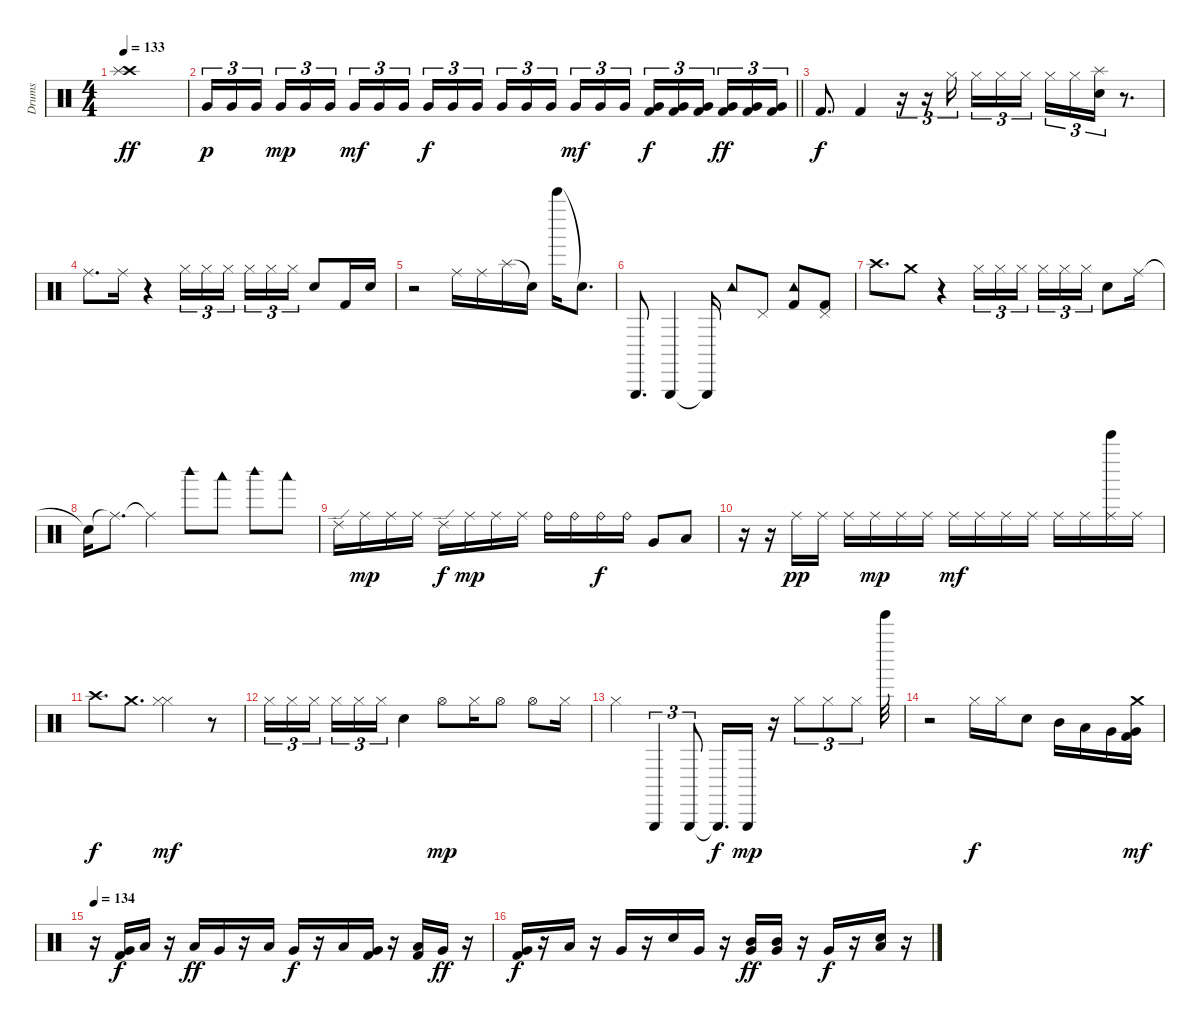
\track ("Drums" "Drums") {instrument percussion}
\staff {score}
\articulation defaults
\ts (4 4)
\tempo 133
\clef neutral
\ks c
("Crash high (hit)" "Splash (hit)").1{dy ff} |
\barLineRight lightlight "Very Low Tom (hit)".16{tu (3 2) dy p} "Very Low Tom (hit)".16{tu (3 2)} "Very Low Tom (hit)".16{tu (3 2) beam splitsecondary} "Very Low Tom (hit)".16{tu (3 2) dy mp} "Very Low Tom (hit)".16{tu (3 2)} "Very Low Tom (hit)".16{tu (3 2)} "Very Low Tom (hit)".16{tu (3 2) dy mf} "Very Low Tom (hit)".16{tu (3 2)} "Very Low Tom (hit)".16{tu (3 2) beam splitsecondary} "Very Low Tom (hit)".16{tu (3 2) dy f} "Very Low Tom (hit)".16{tu (3 2)} "Very Low Tom (hit)".16{tu (3 2)} "Very Low Tom (hit)".16{tu (3 2)} "Very Low Tom (hit)".16{tu (3 2)} "Very Low Tom (hit)".16{tu (3 2) beam splitsecondary} "Very Low Tom (hit)".16{tu (3 2) dy mf} "Very Low Tom (hit)".16{tu (3 2)} "Very Low Tom (hit)".16{tu (3 2)}
("Very Low Tom (hit)" "Kick (hit) 2").16{tu (3 2) dy f} ("Very Low Tom (hit)" "Kick (hit) 2").16{tu (3 2)} ("Very Low Tom (hit)" "Kick (hit) 2").16{tu (3 2) beam splitsecondary} ("Very Low Tom (hit)" "Kick (hit) 2").16{tu (3 2) dy ff} ("Very Low Tom (hit)" "Kick (hit) 2").16{tu (3 2)} ("Very Low Tom (hit)" "Kick (hit) 2").16{tu (3 2)} |
\section ("" "")
"Kick (hit) 2".8{d dy f} "Kick (hit) 2".4 r.16{tu (3 2)} r.16{tu (3 2)} "Hi-Hat (closed)".16{tu (3 2) beam splitsecondary} "Hi-Hat (closed)".16{tu (3 2)} "Hi-Hat (closed)".16{tu (3 2)} "Hi-Hat (closed)".16{tu (3 2) beam splitsecondary} "Hi-Hat (closed)".16{tu (3 2)} "Hi-Hat (closed)".16{tu (3 2)} ("Splash (hit)" "Snare (hit) 2").16{tu (3 2)} r.8{d} |
"Ride (middle)".8{d} "Ride (middle)".16 r.4 "Hi-Hat (closed)".16{tu (3 2)} "Hi-Hat (closed)".16{tu (3 2)} "Hi-Hat (closed)".16{tu (3 2) beam splitsecondary} "Hi-Hat (closed)".16{tu (3 2)} "Hi-Hat (closed)".16{tu (3 2)} "Hi-Hat (closed)".16{tu (3 2)} "Snare (hit) 2".8 "Kick (hit) 2".16 "Snare (hit) 2".16 |
r.2 "Ride (middle)".16 "Ride (middle)".16 "Splash (hit)".16 "Snare (hit)"{t}.16 "Bell Tree (hit)".16 "Snare (hit)"{t}.8{d} |
"Triangle (hit)".8{d} "Triangle (hit)".4 "Triangle (hit)"{t}.16 "Tambourine (hit)".8 "Pedal Hi-Hat (hit)".8 ("Tambourine (hit)" "Kick (hit) 2").8 ("Pedal Hi-Hat (hit)" "Kick (hit) 2").8 |
"Crash high (hit)".8{d} "Crash medium (hit)".8 r.4 "Hi-Hat (closed)".16{tu (3 2)} "Hi-Hat (closed)".16{tu (3 2)} "Hi-Hat (closed)".16{tu (3 2) beam splitsecondary} "Hi-Hat (closed)".16{tu (3 2)} "Hi-Hat (closed)".16{tu (3 2)} "Hi-Hat (closed)".16{tu (3 2)} "Snare (hit) 2".8 "Ride (middle)".16 |
"Snare (hit)"{t}.16 "Ride (middle)"{t}.8{d} "Ride (middle)"{t}.4 "Woodblock high (hit)".8 "Woodblock low (hit)".8 "Woodblock high (hit)".8 "Woodblock low (hit)".8 |
"Ride (edge) 2".16 "Ride (middle)".16{dy mp} "Ride (middle)".16 "Ride (middle)".16 "Ride (edge) 2".16{dy f} "Ride (middle)".16{dy mp} "Ride (middle)".16 "Ride (middle)".16 "Ride (bell)".16 "Ride (bell)".16 "Ride (bell)".16{dy f} "Ride (bell)".16 "Very Low Tom (hit)".8 "Low Floor Tom (hit)".8 |
r.16 r.16 "Ride (middle)".16{dy pp} "Ride (middle)".16 "Ride (middle)".16 "Ride (middle)".16{dy mp} "Ride (middle)".16 "Ride (middle)".16 "Ride (middle)".16{dy mf} "Ride (middle)".16 "Ride (middle)".16 "Ride (middle)".16 "Ride (middle)".16 "Ride (middle)".16 ("Bell Tree (hit)" "Ride (middle)").16 "Ride (middle)".16 |
"Crash high (hit)".8{d dy f} "Crash medium (hit)".8{d} ("Hi-Hat (closed)" "Hi-Hat (closed)").2{dy mf} r.8 |
"Hi-Hat (closed)".16{tu (3 2)} "Hi-Hat (closed)".16{tu (3 2)} "Hi-Hat (closed)".16{tu (3 2) beam splitsecondary} "Hi-Hat (closed)".16{tu (3 2)} "Hi-Hat (closed)".16{tu (3 2)} "Hi-Hat (closed)".16{tu (3 2)} "Snare (hit) 2".4 "Hi-Hat (open)".8{dy mp} "Hi-Hat (closed)".16 "Hi-Hat (open)".8 "Hi-Hat (open)".8 "Hi-Hat (closed)".16 |
"Hi-Hat (closed)".4 "Triangle (hit)".4{tu (3 2)} "Triangle (hit)".8{tu (3 2)} "Triangle (hit)"{t}.16{d dy f} "Triangle (hit)".16{dy mp} r.16 "Hi-Hat (closed)".8{tu (3 2)} "Hi-Hat (closed)".8{tu (3 2)} "Hi-Hat (closed)".8{tu (3 2)} "Tinkle Bell (hit)".32 |
r.2 "Hi-Hat (closed)".16{dy f} "Hi-Hat (closed)".16 "Snare (hit) 2".8 "Mid Tom (hit)".16 "Low Tom (hit)".16 "Very Low Tom (hit)".16 ("Crash medium (hit)" "Very Low Tom (hit)" "Kick (hit) 2").16{dy mf} |
\tempo 134
r.16 ("Very Low Tom (hit)" "Kick (hit) 2").16{dy f} "Low Tom (hit)".16 r.16 "Low Tom (hit)".16{dy ff} "Very Low Tom (hit)".16 r.16 "Low Floor Tom (hit)".16 "Very Low Tom (hit)".16{dy f} r.16 "Low Tom (hit)".16 ("Very Low Tom (hit)" "Kick (hit) 2").16 r.16 ("Low Tom (hit)" "Kick (hit) 2").16 "Very Low Tom (hit)".16{dy ff} r.16 |
("Very Low Tom (hit)" "Kick (hit) 2").16{dy f} r.16 "Low Tom (hit)".16 r.16 "Very Low Tom (hit)".16 r.16 "Snare (hit) 2".16 "Very Low Tom (hit)".16 r.16 ("Very Low Tom (hit)" "Mid Tom (hit)").16{dy ff} ("Very Low Tom (hit)" "Mid Tom (hit)").16 r.16 "Very Low Tom (hit)".16{dy f} r.16 ("Low Tom (hit)" "Snare (hit) 2").16 r.16
